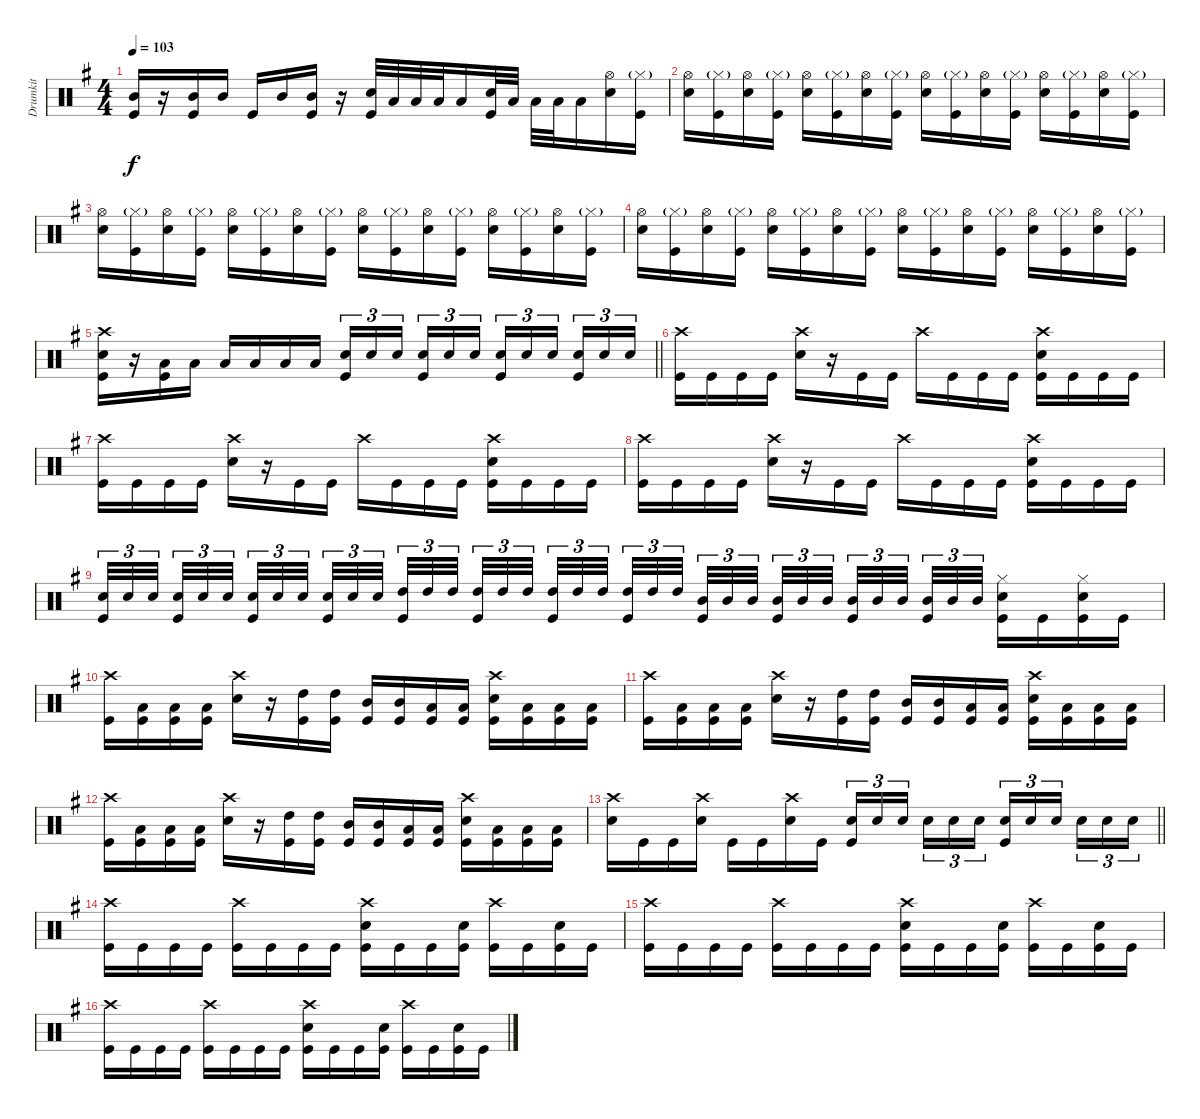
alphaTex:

\track ("Drumkit" "Drumkit") {instrument percussion}
\staff {score}
\articulation defaults
\ts (4 4)
\tempo 103
\clef neutral
\ks eminor
("Mid Tom (hit)" "Kick (hit)").16{dy f} r.16 ("Mid Tom (hit)" "Kick (hit)").16 "Mid Tom (hit)".16 "Kick (hit)".16 "Mid Tom (hit)".16 ("Mid Tom (hit)" "Kick (hit)").16 r.16 ("Snare (hit) 2" "Kick (hit)").32 "Low Tom (hit)".32 "Low Tom (hit)".32 "Low Tom (hit)".32 "Low Tom (hit)".16 ("Snare (hit) 2" "Kick (hit)").32 "Low Tom (hit)".32 "Low Tom (hit)".32 "Low Tom (hit)".32 "Low Tom (hit)".16 ("Hi-Hat (open)" "Snare (hit) 2").16 ("Hi-Hat (closed)"{g} "Kick (hit)").16 |
("Hi-Hat (open)" "Snare (hit) 2").16 ("Hi-Hat (closed)"{g} "Kick (hit)").16 ("Hi-Hat (open)" "Snare (hit) 2").16 ("Hi-Hat (closed)"{g} "Kick (hit)").16 ("Hi-Hat (open)" "Snare (hit) 2").16 ("Hi-Hat (closed)"{g} "Kick (hit)").16 ("Hi-Hat (open)" "Snare (hit) 2").16 ("Hi-Hat (closed)"{g} "Kick (hit)").16 ("Hi-Hat (open)" "Snare (hit) 2").16 ("Hi-Hat (closed)"{g} "Kick (hit)").16 ("Hi-Hat (open)" "Snare (hit) 2").16 ("Hi-Hat (closed)"{g} "Kick (hit)").16 ("Hi-Hat (open)" "Snare (hit) 2").16 ("Hi-Hat (closed)"{g} "Kick (hit)").16 ("Hi-Hat (open)" "Snare (hit) 2").16 ("Hi-Hat (closed)"{g} "Kick (hit)").16 |
("Hi-Hat (open)" "Snare (hit) 2").16 ("Hi-Hat (closed)"{g} "Kick (hit)").16 ("Hi-Hat (open)" "Snare (hit) 2").16 ("Hi-Hat (closed)"{g} "Kick (hit)").16 ("Hi-Hat (open)" "Snare (hit) 2").16 ("Hi-Hat (closed)"{g} "Kick (hit)").16 ("Hi-Hat (open)" "Snare (hit) 2").16 ("Hi-Hat (closed)"{g} "Kick (hit)").16 ("Hi-Hat (open)" "Snare (hit) 2").16 ("Hi-Hat (closed)"{g} "Kick (hit)").16 ("Hi-Hat (open)" "Snare (hit) 2").16 ("Hi-Hat (closed)"{g} "Kick (hit)").16 ("Hi-Hat (open)" "Snare (hit) 2").16 ("Hi-Hat (closed)"{g} "Kick (hit)").16 ("Hi-Hat (open)" "Snare (hit) 2").16 ("Hi-Hat (closed)"{g} "Kick (hit)").16 |
("Hi-Hat (open)" "Snare (hit) 2").16 ("Hi-Hat (closed)"{g} "Kick (hit)").16 ("Hi-Hat (open)" "Snare (hit) 2").16 ("Hi-Hat (closed)"{g} "Kick (hit)").16 ("Hi-Hat (open)" "Snare (hit) 2").16 ("Hi-Hat (closed)"{g} "Kick (hit)").16 ("Hi-Hat (open)" "Snare (hit) 2").16 ("Hi-Hat (closed)"{g} "Kick (hit)").16 ("Hi-Hat (open)" "Snare (hit) 2").16 ("Hi-Hat (closed)"{g} "Kick (hit)").16 ("Hi-Hat (open)" "Snare (hit) 2").16 ("Hi-Hat (closed)"{g} "Kick (hit)").16 ("Hi-Hat (open)" "Snare (hit) 2").16 ("Hi-Hat (closed)"{g} "Kick (hit)").16 ("Hi-Hat (open)" "Snare (hit) 2").16 ("Hi-Hat (closed)"{g} "Kick (hit)").16 |
\barLineRight lightlight
("Crash high (hit)" "Snare (hit) 2" "Kick (hit)").16 r.16 ("Low Tom (hit)" "Kick (hit)").16 "Low Tom (hit)".16 "Low Tom (hit)".16 "Low Tom (hit)".16 "Low Tom (hit)".16 "Low Tom (hit)".16 ("Snare (hit) 2" "Kick (hit)").16{tu (3 2)} "Snare (hit) 2".16{tu (3 2)} "Snare (hit) 2".16{tu (3 2)} ("Snare (hit) 2" "Kick (hit)").16{tu (3 2)} "Snare (hit) 2".16{tu (3 2)} "Snare (hit) 2".16{tu (3 2)} ("Snare (hit) 2" "Kick (hit)").16{tu (3 2)} "Snare (hit) 2".16{tu (3 2)} "Snare (hit) 2".16{tu (3 2)} ("Snare (hit) 2" "Kick (hit)").16{tu (3 2)} "Snare (hit) 2".16{tu (3 2)} "Snare (hit) 2".16{tu (3 2)} |
("Crash high (hit)" "Kick (hit)").16 "Kick (hit)".16 "Kick (hit)".16 "Kick (hit)".16 ("Crash high (hit)" "Snare (hit) 2").16 r.16 "Kick (hit)".16 "Kick (hit)".16 "Crash high (hit)".16 "Kick (hit)".16 "Kick (hit)".16 "Kick (hit)".16 ("Crash high (hit)" "Snare (hit) 2" "Kick (hit)").16 "Kick (hit)".16 "Kick (hit)".16 "Kick (hit)".16 |
("Crash high (hit)" "Kick (hit)").16 "Kick (hit)".16 "Kick (hit)".16 "Kick (hit)".16 ("Crash high (hit)" "Snare (hit) 2").16 r.16 "Kick (hit)".16 "Kick (hit)".16 "Crash high (hit)".16 "Kick (hit)".16 "Kick (hit)".16 "Kick (hit)".16 ("Crash high (hit)" "Snare (hit) 2" "Kick (hit)").16 "Kick (hit)".16 "Kick (hit)".16 "Kick (hit)".16 |
("Crash high (hit)" "Kick (hit)").16 "Kick (hit)".16 "Kick (hit)".16 "Kick (hit)".16 ("Crash high (hit)" "Snare (hit) 2").16 r.16 "Kick (hit)".16 "Kick (hit)".16 "Crash high (hit)".16 "Kick (hit)".16 "Kick (hit)".16 "Kick (hit)".16 ("Crash high (hit)" "Snare (hit) 2" "Kick (hit)").16 "Kick (hit)".16 "Kick (hit)".16 "Kick (hit)".16 |
("Snare (hit) 2" "Kick (hit)").32{tu (3 2)} "Snare (hit) 2".32{tu (3 2)} "Snare (hit) 2".32{tu (3 2)} ("Snare (hit) 2" "Kick (hit)").32{tu (3 2)} "Snare (hit) 2".32{tu (3 2)} "Snare (hit) 2".32{tu (3 2)} ("Snare (hit) 2" "Kick (hit)").32{tu (3 2)} "Snare (hit) 2".32{tu (3 2)} "Snare (hit) 2".32{tu (3 2)} ("Snare (hit) 2" "Kick (hit)").32{tu (3 2)} "Snare (hit) 2".32{tu (3 2)} "Snare (hit) 2".32{tu (3 2)} ("High Tom (hit)" "Kick (hit)").32{tu (3 2)} "High Tom (hit)".32{tu (3 2)} "High Tom (hit)".32{tu (3 2)} ("High Tom (hit)" "Kick (hit)").32{tu (3 2)} "High Tom (hit)".32{tu (3 2)} "High Tom (hit)".32{tu (3 2)} ("High Tom (hit)" "Kick (hit)").32{tu (3 2)} "High Tom (hit)".32{tu (3 2)} "High Tom (hit)".32{tu (3 2)} ("High Tom (hit)" "Kick (hit)").32{tu (3 2)} "High Tom (hit)".32{tu (3 2)} "High Tom (hit)".32{tu (3 2)} ("Mid Tom (hit)" "Kick (hit)").32{tu (3 2)} "Mid Tom (hit)".32{tu (3 2)} "Mid Tom (hit)".32{tu (3 2)} ("Mid Tom (hit)" "Kick (hit)").32{tu (3 2)} "Mid Tom (hit)".32{tu (3 2)} "Mid Tom (hit)".32{tu (3 2)} ("Mid Tom (hit)" "Kick (hit)").32{tu (3 2)} "Mid Tom (hit)".32{tu (3 2)} "Mid Tom (hit)".32{tu (3 2)} ("Mid Tom (hit)" "Kick (hit)").32{tu (3 2)} "Mid Tom (hit)".32{tu (3 2)} "Mid Tom (hit)".32{tu (3 2)} ("Hi-Hat (closed)" "Snare (hit) 2" "Kick (hit)").16 "Kick (hit)".16 ("Hi-Hat (closed)" "Snare (hit) 2" "Kick (hit)").16 "Kick (hit)".16 |
("Crash high (hit)" "Kick (hit)").16 ("Low Tom (hit)" "Kick (hit)").16 ("Low Tom (hit)" "Kick (hit)").16 ("Low Tom (hit)" "Kick (hit)").16 ("Crash high (hit)" "Snare (hit) 2").16 r.16 ("High Tom (hit)" "Kick (hit)").16 ("High Tom (hit)" "Kick (hit)").16 ("Mid Tom (hit)" "Kick (hit)").16 ("Mid Tom (hit)" "Kick (hit)").16 ("Low Tom (hit)" "Kick (hit)").16 ("Low Tom (hit)" "Kick (hit)").16 ("Crash high (hit)" "Snare (hit) 2" "Kick (hit)").16 ("Low Tom (hit)" "Kick (hit)").16 ("Low Tom (hit)" "Kick (hit)").16 ("Low Tom (hit)" "Kick (hit)").16 |
("Crash high (hit)" "Kick (hit)").16 ("Low Tom (hit)" "Kick (hit)").16 ("Low Tom (hit)" "Kick (hit)").16 ("Low Tom (hit)" "Kick (hit)").16 ("Crash high (hit)" "Snare (hit) 2").16 r.16 ("High Tom (hit)" "Kick (hit)").16 ("High Tom (hit)" "Kick (hit)").16 ("Mid Tom (hit)" "Kick (hit)").16 ("Mid Tom (hit)" "Kick (hit)").16 ("Low Tom (hit)" "Kick (hit)").16 ("Low Tom (hit)" "Kick (hit)").16 ("Crash high (hit)" "Snare (hit) 2" "Kick (hit)").16 ("Low Tom (hit)" "Kick (hit)").16 ("Low Tom (hit)" "Kick (hit)").16 ("Low Tom (hit)" "Kick (hit)").16 |
("Crash high (hit)" "Kick (hit)").16 ("Low Tom (hit)" "Kick (hit)").16 ("Low Tom (hit)" "Kick (hit)").16 ("Low Tom (hit)" "Kick (hit)").16 ("Crash high (hit)" "Snare (hit) 2").16 r.16 ("High Tom (hit)" "Kick (hit)").16 ("High Tom (hit)" "Kick (hit)").16 ("Mid Tom (hit)" "Kick (hit)").16 ("Mid Tom (hit)" "Kick (hit)").16 ("Low Tom (hit)" "Kick (hit)").16 ("Low Tom (hit)" "Kick (hit)").16 ("Crash high (hit)" "Snare (hit) 2" "Kick (hit)").16 ("Low Tom (hit)" "Kick (hit)").16 ("Low Tom (hit)" "Kick (hit)").16 ("Low Tom (hit)" "Kick (hit)").16 |
\barLineRight lightlight
("Crash high (hit)" "Snare (hit) 2").16 "Kick (hit)".16 "Kick (hit)".16 ("Crash high (hit)" "Snare (hit) 2").16 "Kick (hit)".16 "Kick (hit)".16 ("Crash high (hit)" "Snare (hit) 2").16 "Kick (hit)".16 ("Snare (hit) 2" "Kick (hit)").16{tu (3 2)} "Snare (hit) 2".16{tu (3 2)} "Snare (hit) 2".16{tu (3 2)} "Snare (hit) 2".16{tu (3 2)} "Snare (hit) 2".16{tu (3 2)} "Snare (hit) 2".16{tu (3 2)} ("Snare (hit) 2" "Kick (hit)").16{tu (3 2)} "Snare (hit) 2".16{tu (3 2)} "Snare (hit) 2".16{tu (3 2)} "Snare (hit) 2".16{tu (3 2)} "Snare (hit) 2".16{tu (3 2)} "Snare (hit) 2".16{tu (3 2)} |
("Crash high (hit)" "Kick (hit)").16 "Kick (hit)".16 "Kick (hit)".16 "Kick (hit)".16 ("Crash high (hit)" "Kick (hit)").16 "Kick (hit)".16 "Kick (hit)".16 "Kick (hit)".16 ("Crash high (hit)" "Snare (hit) 2" "Kick (hit)").16 "Kick (hit)".16 "Kick (hit)".16 ("Snare (hit) 2" "Kick (hit)").16 ("Crash high (hit)" "Kick (hit)").16 "Kick (hit)".16 ("Snare (hit) 2" "Kick (hit)").16 "Kick (hit)".16 |
("Crash high (hit)" "Kick (hit)").16 "Kick (hit)".16 "Kick (hit)".16 "Kick (hit)".16 ("Crash high (hit)" "Kick (hit)").16 "Kick (hit)".16 "Kick (hit)".16 "Kick (hit)".16 ("Crash high (hit)" "Snare (hit) 2" "Kick (hit)").16 "Kick (hit)".16 "Kick (hit)".16 ("Snare (hit) 2" "Kick (hit)").16 ("Crash high (hit)" "Kick (hit)").16 "Kick (hit)".16 ("Snare (hit) 2" "Kick (hit)").16 "Kick (hit)".16 |
("Crash high (hit)" "Kick (hit)").16 "Kick (hit)".16 "Kick (hit)".16 "Kick (hit)".16 ("Crash high (hit)" "Kick (hit)").16 "Kick (hit)".16 "Kick (hit)".16 "Kick (hit)".16 ("Crash high (hit)" "Snare (hit) 2" "Kick (hit)").16 "Kick (hit)".16 "Kick (hit)".16 ("Snare (hit) 2" "Kick (hit)").16 ("Crash high (hit)" "Kick (hit)").16 "Kick (hit)".16 ("Snare (hit) 2" "Kick (hit)").16 "Kick (hit)".16
